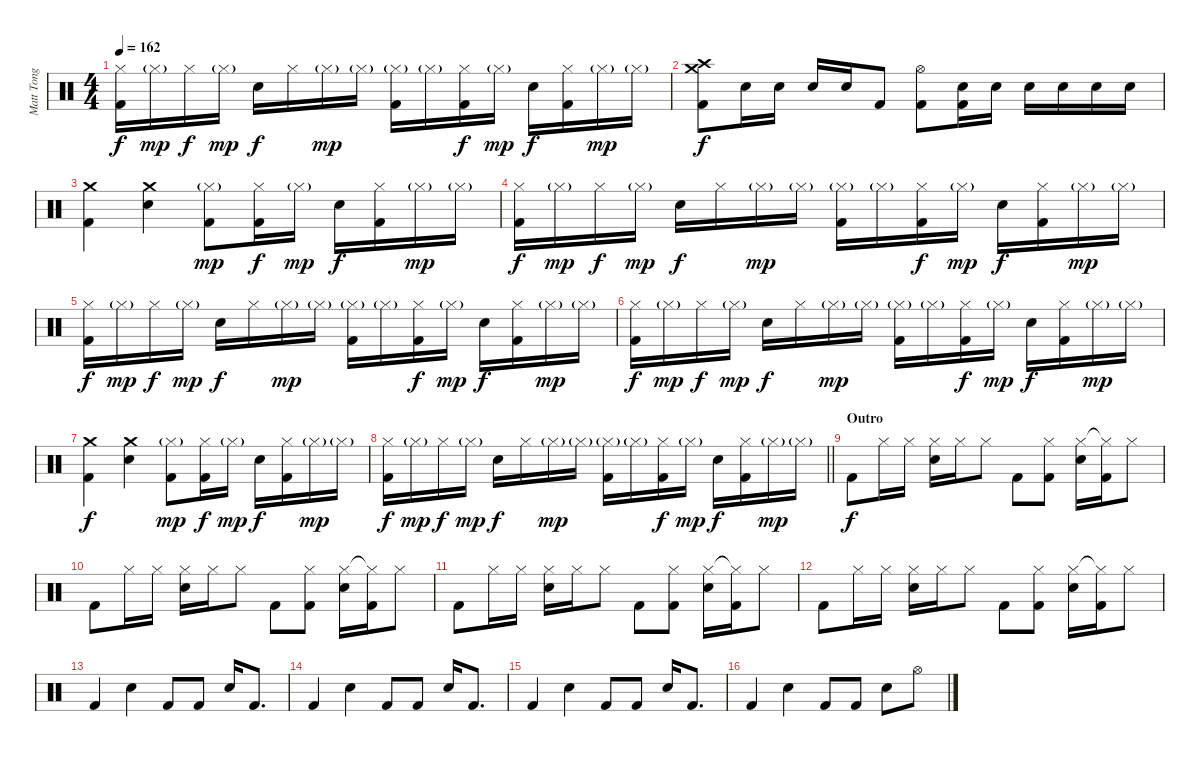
\track ("Matt Tong" "Matt Tong") {instrument percussion}
\staff {score}
\articulation defaults
\ts (4 4)
\tempo 162
\clef neutral
\ks c
("Hi-Hat (closed)" "Kick (hit) 2").16{dy f} "Hi-Hat (closed)"{g}.16{dy mp} "Hi-Hat (closed)".16{dy f} "Hi-Hat (closed)"{g}.16{dy mp} "Snare (hit) 2".16{dy f} "Hi-Hat (closed)".16 "Hi-Hat (closed)"{g}.16{dy mp} "Hi-Hat (closed)"{g}.16 ("Hi-Hat (closed)"{g} "Kick (hit) 2").16 "Hi-Hat (closed)"{g}.16 ("Hi-Hat (closed)" "Kick (hit) 2").16{dy f} "Hi-Hat (closed)"{g}.16{dy mp} "Snare (hit) 2".16{dy f} ("Hi-Hat (closed)" "Kick (hit) 2").16 "Hi-Hat (closed)"{g}.16{dy mp} "Hi-Hat (closed)"{g}.16 |
("Crash medium (hit)" "Crash high (hit)" "Kick (hit) 2").8{dy f} "Snare (hit) 2".16 "Snare (hit) 2".16 "Snare (hit) 2".16 "Snare (hit) 2".16 "Kick (hit) 2".8 ("Hi-Hat (open)" "Kick (hit) 2").8 ("Snare (hit) 2" "Kick (hit) 2").16 "Snare (hit) 2".16 "Snare (hit) 2".16 "Snare (hit) 2".16 "Snare (hit) 2".16 "Snare (hit) 2".16 |
("Crash medium (hit)" "Kick (hit) 2").4 ("Crash medium (hit)" "Snare (hit) 2").4 ("Hi-Hat (closed)"{g} "Kick (hit) 2").8{dy mp} ("Hi-Hat (closed)" "Kick (hit) 2").16{dy f} "Hi-Hat (closed)"{g}.16{dy mp} "Snare (hit) 2".16{dy f} ("Hi-Hat (closed)" "Kick (hit) 2").16 "Hi-Hat (closed)"{g}.16{dy mp} "Hi-Hat (closed)"{g}.16 |
("Hi-Hat (closed)" "Kick (hit) 2").16{dy f} "Hi-Hat (closed)"{g}.16{dy mp} "Hi-Hat (closed)".16{dy f} "Hi-Hat (closed)"{g}.16{dy mp} "Snare (hit) 2".16{dy f} "Hi-Hat (closed)".16 "Hi-Hat (closed)"{g}.16{dy mp} "Hi-Hat (closed)"{g}.16 ("Hi-Hat (closed)"{g} "Kick (hit) 2").16 "Hi-Hat (closed)"{g}.16 ("Hi-Hat (closed)" "Kick (hit) 2").16{dy f} "Hi-Hat (closed)"{g}.16{dy mp} "Snare (hit) 2".16{dy f} ("Hi-Hat (closed)" "Kick (hit) 2").16 "Hi-Hat (closed)"{g}.16{dy mp} "Hi-Hat (closed)"{g}.16 |
("Hi-Hat (closed)" "Kick (hit) 2").16{dy f} "Hi-Hat (closed)"{g}.16{dy mp} "Hi-Hat (closed)".16{dy f} "Hi-Hat (closed)"{g}.16{dy mp} "Snare (hit) 2".16{dy f} "Hi-Hat (closed)".16 "Hi-Hat (closed)"{g}.16{dy mp} "Hi-Hat (closed)"{g}.16 ("Hi-Hat (closed)"{g} "Kick (hit) 2").16 "Hi-Hat (closed)"{g}.16 ("Hi-Hat (closed)" "Kick (hit) 2").16{dy f} "Hi-Hat (closed)"{g}.16{dy mp} "Snare (hit) 2".16{dy f} ("Hi-Hat (closed)" "Kick (hit) 2").16 "Hi-Hat (closed)"{g}.16{dy mp} "Hi-Hat (closed)"{g}.16 |
("Hi-Hat (closed)" "Kick (hit) 2").16{dy f} "Hi-Hat (closed)"{g}.16{dy mp} "Hi-Hat (closed)".16{dy f} "Hi-Hat (closed)"{g}.16{dy mp} "Snare (hit) 2".16{dy f} "Hi-Hat (closed)".16 "Hi-Hat (closed)"{g}.16{dy mp} "Hi-Hat (closed)"{g}.16 ("Hi-Hat (closed)"{g} "Kick (hit) 2").16 "Hi-Hat (closed)"{g}.16 ("Hi-Hat (closed)" "Kick (hit) 2").16{dy f} "Hi-Hat (closed)"{g}.16{dy mp} "Snare (hit) 2".16{dy f} ("Hi-Hat (closed)" "Kick (hit) 2").16 "Hi-Hat (closed)"{g}.16{dy mp} "Hi-Hat (closed)"{g}.16 |
("Crash medium (hit)" "Kick (hit) 2").4{dy f} ("Crash medium (hit)" "Snare (hit) 2").4 ("Hi-Hat (closed)"{g} "Kick (hit) 2").8{dy mp} ("Hi-Hat (closed)" "Kick (hit) 2").16{dy f} "Hi-Hat (closed)"{g}.16{dy mp} "Snare (hit) 2".16{dy f} ("Hi-Hat (closed)" "Kick (hit) 2").16 "Hi-Hat (closed)"{g}.16{dy mp} "Hi-Hat (closed)"{g}.16 |
\barLineRight lightlight
("Hi-Hat (closed)" "Kick (hit) 2").16{dy f} "Hi-Hat (closed)"{g}.16{dy mp} "Hi-Hat (closed)".16{dy f} "Hi-Hat (closed)"{g}.16{dy mp} "Snare (hit) 2".16{dy f} "Hi-Hat (closed)".16 "Hi-Hat (closed)"{g}.16{dy mp} "Hi-Hat (closed)"{g}.16 ("Hi-Hat (closed)"{g} "Kick (hit) 2").16 "Hi-Hat (closed)"{g}.16 ("Hi-Hat (closed)" "Kick (hit) 2").16{dy f} "Hi-Hat (closed)"{g}.16{dy mp} "Snare (hit) 2".16{dy f} ("Hi-Hat (closed)" "Kick (hit) 2").16 "Hi-Hat (closed)"{g}.16{dy mp} "Hi-Hat (closed)"{g}.16 |
\section ("" "Outro")
"Kick (hit) 2".8{dy f} "Hi-Hat (closed)".16 "Hi-Hat (closed)".16 ("Hi-Hat (closed)" "Snare (hit) 2").16 "Hi-Hat (closed)".16 "Hi-Hat (closed)".8 "Kick (hit) 2".8 ("Hi-Hat (closed)" "Kick (hit) 2").8 ("Hi-Hat (closed)" "Snare (hit) 2").16 ("Hi-Hat (closed)"{t} "Kick (hit) 2").16 "Hi-Hat (closed)".8 |
"Kick (hit) 2".8 "Hi-Hat (closed)".16 "Hi-Hat (closed)".16 ("Hi-Hat (closed)" "Snare (hit) 2").16 "Hi-Hat (closed)".16 "Hi-Hat (closed)".8 "Kick (hit) 2".8 ("Hi-Hat (closed)" "Kick (hit) 2").8 ("Hi-Hat (closed)" "Snare (hit) 2").16 ("Hi-Hat (closed)"{t} "Kick (hit) 2").16 "Hi-Hat (closed)".8 |
"Kick (hit) 2".8 "Hi-Hat (closed)".16 "Hi-Hat (closed)".16 ("Hi-Hat (closed)" "Snare (hit) 2").16 "Hi-Hat (closed)".16 "Hi-Hat (closed)".8 "Kick (hit) 2".8 ("Hi-Hat (closed)" "Kick (hit) 2").8 ("Hi-Hat (closed)" "Snare (hit) 2").16 ("Hi-Hat (closed)"{t} "Kick (hit) 2").16 "Hi-Hat (closed)".8 |
"Kick (hit) 2".8 "Hi-Hat (closed)".16 "Hi-Hat (closed)".16 ("Hi-Hat (closed)" "Snare (hit) 2").16 "Hi-Hat (closed)".16 "Hi-Hat (closed)".8 "Kick (hit) 2".8 ("Hi-Hat (closed)" "Kick (hit) 2").8 ("Hi-Hat (closed)" "Snare (hit) 2").16 ("Hi-Hat (closed)"{t} "Kick (hit) 2").16 "Hi-Hat (closed)".8 |
"Kick (hit) 2".4 "Snare (hit) 2".4 "Kick (hit) 2".8 "Kick (hit) 2".8 "Snare (hit) 2".16 "Kick (hit) 2".8{d} |
"Kick (hit) 2".4 "Snare (hit) 2".4 "Kick (hit) 2".8 "Kick (hit) 2".8 "Snare (hit) 2".16 "Kick (hit) 2".8{d} |
"Kick (hit) 2".4 "Snare (hit) 2".4 "Kick (hit) 2".8 "Kick (hit) 2".8 "Snare (hit) 2".16 "Kick (hit) 2".8{d} |
"Kick (hit) 2".4 "Snare (hit) 2".4 "Kick (hit) 2".8 "Kick (hit) 2".8 "Snare (hit) 2".8 "Hi-Hat (open)".8
